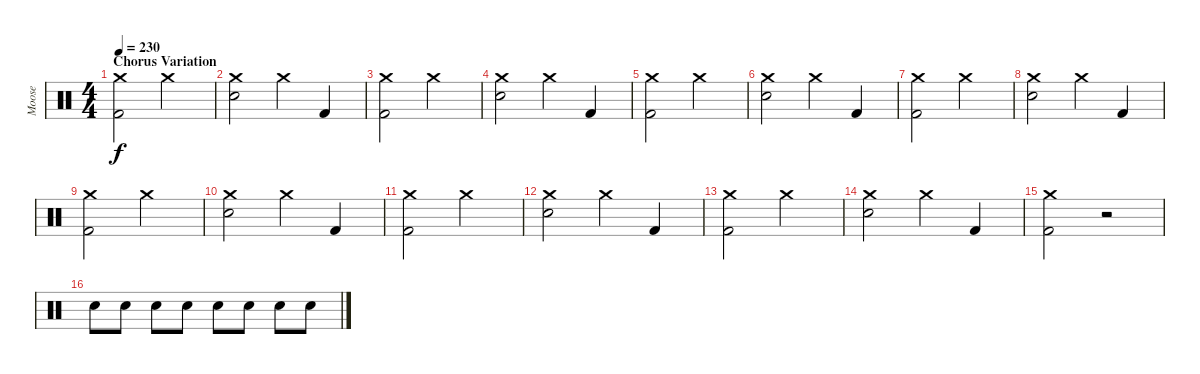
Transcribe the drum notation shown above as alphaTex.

\track ("Moose" "Moose") {instrument percussion}
\staff {score}
\articulation defaults
\ts (4 4)
\section ("" "Chorus Variation")
\tempo 230
\clef neutral
\ks c
("Crash medium (hit)" "Kick (hit) 2").2{dy f} "Crash medium (hit)".2 |
("Crash medium (hit)" "Snare (hit) 2").2 "Crash medium (hit)".4 "Kick (hit) 2".4 |
("Crash medium (hit)" "Kick (hit) 2").2 "Crash medium (hit)".2 |
("Crash medium (hit)" "Snare (hit) 2").2 "Crash medium (hit)".4 "Kick (hit) 2".4 |
("Crash medium (hit)" "Kick (hit) 2").2 "Crash medium (hit)".2 |
("Crash medium (hit)" "Snare (hit) 2").2 "Crash medium (hit)".4 "Kick (hit) 2".4 |
("Crash medium (hit)" "Kick (hit) 2").2 "Crash medium (hit)".2 |
("Crash medium (hit)" "Snare (hit) 2").2 "Crash medium (hit)".4 "Kick (hit) 2".4 |
("Crash medium (hit)" "Kick (hit) 2").2 "Crash medium (hit)".2 |
("Crash medium (hit)" "Snare (hit) 2").2 "Crash medium (hit)".4 "Kick (hit) 2".4 |
("Crash medium (hit)" "Kick (hit) 2").2 "Crash medium (hit)".2 |
("Crash medium (hit)" "Snare (hit) 2").2 "Crash medium (hit)".4 "Kick (hit) 2".4 |
("Crash medium (hit)" "Kick (hit) 2").2 "Crash medium (hit)".2 |
("Crash medium (hit)" "Snare (hit) 2").2 "Crash medium (hit)".4 "Kick (hit) 2".4 |
("Crash medium (hit)" "Kick (hit) 2").2 r.2 |
"Snare (hit) 2".8 "Snare (hit) 2".8 "Snare (hit) 2".8 "Snare (hit) 2".8 "Snare (hit) 2".8 "Snare (hit) 2".8 "Snare (hit) 2".8 "Snare (hit) 2".8
